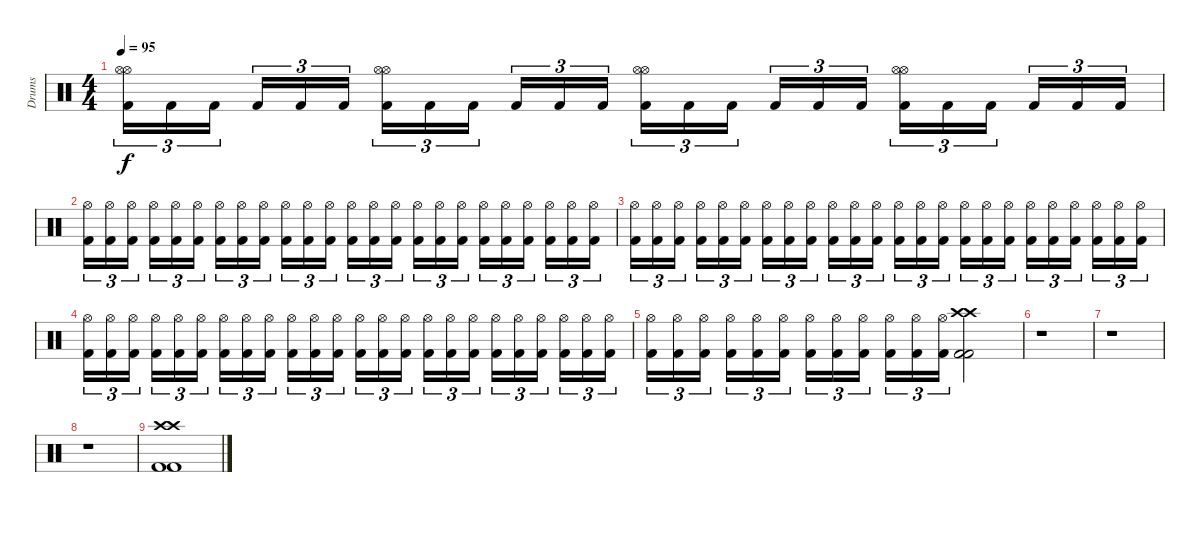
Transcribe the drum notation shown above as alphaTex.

\track ("Drums" "Drums") {instrument percussion}
\staff {score}
\articulation defaults
\ts (4 4)
\tempo 95
\clef neutral
\ks c
("Kick (hit) 2" "Hi-Hat (open)" "Hi-Hat (open)").16{tu (3 2) dy f} "Kick (hit) 2".16{tu (3 2)} "Kick (hit) 2".16{tu (3 2)} "Kick (hit) 2".16{tu (3 2)} "Kick (hit) 2".16{tu (3 2)} "Kick (hit) 2".16{tu (3 2)} ("Kick (hit) 2" "Hi-Hat (open)" "Hi-Hat (open)").16{tu (3 2)} "Kick (hit) 2".16{tu (3 2)} "Kick (hit) 2".16{tu (3 2)} "Kick (hit) 2".16{tu (3 2)} "Kick (hit) 2".16{tu (3 2)} "Kick (hit) 2".16{tu (3 2)} ("Kick (hit) 2" "Hi-Hat (open)" "Hi-Hat (open)").16{tu (3 2)} "Kick (hit) 2".16{tu (3 2)} "Kick (hit) 2".16{tu (3 2)} "Kick (hit) 2".16{tu (3 2)} "Kick (hit) 2".16{tu (3 2)} "Kick (hit) 2".16{tu (3 2)} ("Kick (hit) 2" "Hi-Hat (open)" "Hi-Hat (open)").16{tu (3 2)} "Kick (hit) 2".16{tu (3 2)} "Kick (hit) 2".16{tu (3 2)} "Kick (hit) 2".16{tu (3 2)} "Kick (hit) 2".16{tu (3 2)} "Kick (hit) 2".16{tu (3 2)} |
("Kick (hit) 2" "Hi-Hat (open)").16{tu (3 2)} ("Kick (hit) 2" "Hi-Hat (open)").16{tu (3 2)} ("Kick (hit) 2" "Hi-Hat (open)").16{tu (3 2)} ("Kick (hit) 2" "Hi-Hat (open)").16{tu (3 2)} ("Kick (hit) 2" "Hi-Hat (open)").16{tu (3 2)} ("Kick (hit) 2" "Hi-Hat (open)").16{tu (3 2)} ("Kick (hit) 2" "Hi-Hat (open)").16{tu (3 2)} ("Kick (hit) 2" "Hi-Hat (open)").16{tu (3 2)} ("Kick (hit) 2" "Hi-Hat (open)").16{tu (3 2)} ("Kick (hit) 2" "Hi-Hat (open)").16{tu (3 2)} ("Kick (hit) 2" "Hi-Hat (open)").16{tu (3 2)} ("Kick (hit) 2" "Hi-Hat (open)").16{tu (3 2)} ("Kick (hit) 2" "Hi-Hat (open)").16{tu (3 2)} ("Kick (hit) 2" "Hi-Hat (open)").16{tu (3 2)} ("Kick (hit) 2" "Hi-Hat (open)").16{tu (3 2)} ("Kick (hit) 2" "Hi-Hat (open)").16{tu (3 2)} ("Kick (hit) 2" "Hi-Hat (open)").16{tu (3 2)} ("Kick (hit) 2" "Hi-Hat (open)").16{tu (3 2)} ("Kick (hit) 2" "Hi-Hat (open)").16{tu (3 2)} ("Kick (hit) 2" "Hi-Hat (open)").16{tu (3 2)} ("Kick (hit) 2" "Hi-Hat (open)").16{tu (3 2)} ("Kick (hit) 2" "Hi-Hat (open)").16{tu (3 2)} ("Kick (hit) 2" "Hi-Hat (open)").16{tu (3 2)} ("Kick (hit) 2" "Hi-Hat (open)").16{tu (3 2)} |
("Kick (hit) 2" "Hi-Hat (open)").16{tu (3 2)} ("Kick (hit) 2" "Hi-Hat (open)").16{tu (3 2)} ("Kick (hit) 2" "Hi-Hat (open)").16{tu (3 2)} ("Kick (hit) 2" "Hi-Hat (open)").16{tu (3 2)} ("Kick (hit) 2" "Hi-Hat (open)").16{tu (3 2)} ("Kick (hit) 2" "Hi-Hat (open)").16{tu (3 2)} ("Kick (hit) 2" "Hi-Hat (open)").16{tu (3 2)} ("Kick (hit) 2" "Hi-Hat (open)").16{tu (3 2)} ("Kick (hit) 2" "Hi-Hat (open)").16{tu (3 2)} ("Kick (hit) 2" "Hi-Hat (open)").16{tu (3 2)} ("Kick (hit) 2" "Hi-Hat (open)").16{tu (3 2)} ("Kick (hit) 2" "Hi-Hat (open)").16{tu (3 2)} ("Kick (hit) 2" "Hi-Hat (open)").16{tu (3 2)} ("Kick (hit) 2" "Hi-Hat (open)").16{tu (3 2)} ("Kick (hit) 2" "Hi-Hat (open)").16{tu (3 2)} ("Kick (hit) 2" "Hi-Hat (open)").16{tu (3 2)} ("Kick (hit) 2" "Hi-Hat (open)").16{tu (3 2)} ("Kick (hit) 2" "Hi-Hat (open)").16{tu (3 2)} ("Kick (hit) 2" "Hi-Hat (open)").16{tu (3 2)} ("Kick (hit) 2" "Hi-Hat (open)").16{tu (3 2)} ("Kick (hit) 2" "Hi-Hat (open)").16{tu (3 2)} ("Kick (hit) 2" "Hi-Hat (open)").16{tu (3 2)} ("Kick (hit) 2" "Hi-Hat (open)").16{tu (3 2)} ("Kick (hit) 2" "Hi-Hat (open)").16{tu (3 2)} |
("Kick (hit) 2" "Hi-Hat (open)").16{tu (3 2)} ("Kick (hit) 2" "Hi-Hat (open)").16{tu (3 2)} ("Kick (hit) 2" "Hi-Hat (open)").16{tu (3 2)} ("Kick (hit) 2" "Hi-Hat (open)").16{tu (3 2)} ("Kick (hit) 2" "Hi-Hat (open)").16{tu (3 2)} ("Kick (hit) 2" "Hi-Hat (open)").16{tu (3 2)} ("Kick (hit) 2" "Hi-Hat (open)").16{tu (3 2)} ("Kick (hit) 2" "Hi-Hat (open)").16{tu (3 2)} ("Kick (hit) 2" "Hi-Hat (open)").16{tu (3 2)} ("Kick (hit) 2" "Hi-Hat (open)").16{tu (3 2)} ("Kick (hit) 2" "Hi-Hat (open)").16{tu (3 2)} ("Kick (hit) 2" "Hi-Hat (open)").16{tu (3 2)} ("Kick (hit) 2" "Hi-Hat (open)").16{tu (3 2)} ("Kick (hit) 2" "Hi-Hat (open)").16{tu (3 2)} ("Kick (hit) 2" "Hi-Hat (open)").16{tu (3 2)} ("Kick (hit) 2" "Hi-Hat (open)").16{tu (3 2)} ("Kick (hit) 2" "Hi-Hat (open)").16{tu (3 2)} ("Kick (hit) 2" "Hi-Hat (open)").16{tu (3 2)} ("Kick (hit) 2" "Hi-Hat (open)").16{tu (3 2)} ("Kick (hit) 2" "Hi-Hat (open)").16{tu (3 2)} ("Kick (hit) 2" "Hi-Hat (open)").16{tu (3 2)} ("Kick (hit) 2" "Hi-Hat (open)").16{tu (3 2)} ("Kick (hit) 2" "Hi-Hat (open)").16{tu (3 2)} ("Kick (hit) 2" "Hi-Hat (open)").16{tu (3 2)} |
("Kick (hit) 2" "Hi-Hat (open)").16{tu (3 2)} ("Kick (hit) 2" "Hi-Hat (open)").16{tu (3 2)} ("Kick (hit) 2" "Hi-Hat (open)").16{tu (3 2)} ("Kick (hit) 2" "Hi-Hat (open)").16{tu (3 2)} ("Kick (hit) 2" "Hi-Hat (open)").16{tu (3 2)} ("Kick (hit) 2" "Hi-Hat (open)").16{tu (3 2)} ("Kick (hit) 2" "Hi-Hat (open)").16{tu (3 2)} ("Kick (hit) 2" "Hi-Hat (open)").16{tu (3 2)} ("Kick (hit) 2" "Hi-Hat (open)").16{tu (3 2)} ("Kick (hit) 2" "Hi-Hat (open)").16{tu (3 2)} ("Kick (hit) 2" "Hi-Hat (open)").16{tu (3 2)} ("Kick (hit) 2" "Hi-Hat (open)").16{tu (3 2)} ("Kick (hit) 2" "Kick (hit) 2" "Crash high (hit)" "Crash high (hit)").2 |
r.1 |
r.1 |
r.1 |
("Kick (hit) 2" "Kick (hit) 2" "Crash high (hit)" "Crash high (hit)").1
